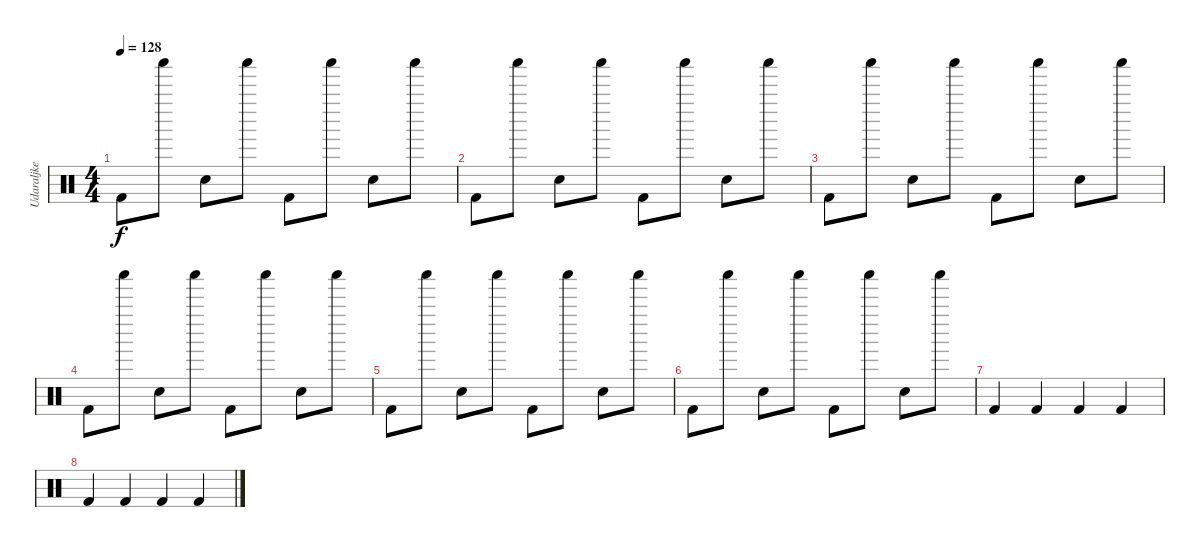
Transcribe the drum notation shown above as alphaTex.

\track ("Udaraljke" "Udaraljke") {instrument percussion}
\staff {score}
\articulation defaults
\ts (4 4)
\tempo 128
\clef neutral
\ks c "Kick (hit) 2".8{dy f} "Shaker (hit)".8 "Hand Clap (hit)".8 "Shaker (hit)".8 "Kick (hit) 2".8 "Shaker (hit)".8 "Hand Clap (hit)".8 "Shaker (hit)".8
|
"Kick (hit) 2".8 "Shaker (hit)".8 "Hand Clap (hit)".8 "Shaker (hit)".8 "Kick (hit) 2".8 "Shaker (hit)".8 "Hand Clap (hit)".8 "Shaker (hit)".8 |
"Kick (hit) 2".8 "Shaker (hit)".8 "Hand Clap (hit)".8 "Shaker (hit)".8 "Kick (hit) 2".8 "Shaker (hit)".8 "Hand Clap (hit)".8 "Shaker (hit)".8 |
"Kick (hit) 2".8 "Shaker (hit)".8 "Hand Clap (hit)".8 "Shaker (hit)".8 "Kick (hit) 2".8 "Shaker (hit)".8 "Hand Clap (hit)".8 "Shaker (hit)".8 |
"Kick (hit) 2".8 "Shaker (hit)".8 "Hand Clap (hit)".8 "Shaker (hit)".8 "Kick (hit) 2".8 "Shaker (hit)".8 "Hand Clap (hit)".8 "Shaker (hit)".8 |
"Kick (hit) 2".8 "Shaker (hit)".8 "Hand Clap (hit)".8 "Shaker (hit)".8 "Kick (hit) 2".8 "Shaker (hit)".8 "Hand Clap (hit)".8 "Shaker (hit)".8 |
"Kick (hit) 2".4 "Kick (hit) 2".4 "Kick (hit) 2".4 "Kick (hit) 2".4 |
"Kick (hit) 2".4 "Kick (hit) 2".4 "Kick (hit) 2".4 "Kick (hit) 2".4
